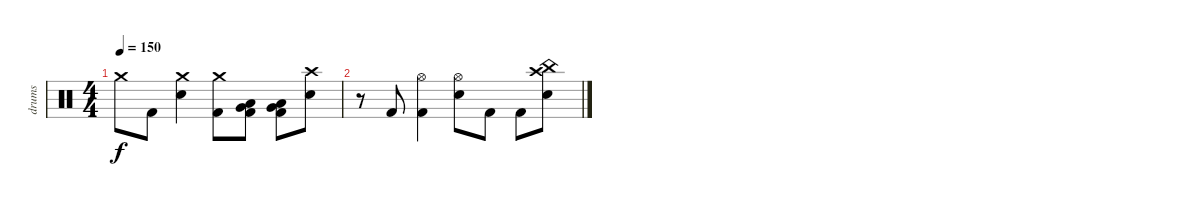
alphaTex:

\track ("drums" "drums") {instrument percussion}
\staff {score}
\articulation defaults
\ts (4 4)
\tempo 150
\clef neutral
\ks c "Crash medium (hit)".8{dy f} "Kick (hit) 2".8
("Crash medium (hit)" "Electric Snare (hit)").4 ("Crash medium (hit)" "Kick (hit) 2").8 ("Low Tom (hit)" "Very Low Tom (hit)" "Kick (hit) 2").8 ("Low Tom (hit)" "Very Low Tom (hit)" "Kick (hit) 2").8 ("Crash high (hit)" "Electric Snare (hit)").8 |
r.8 "Kick (hit) 2".8 ("Hi-Hat (open)" "Kick (hit) 2").4 ("Hi-Hat (open)" "Electric Snare (hit)").8 "Kick (hit) 2".8 "Kick (hit) 2".8 ("China (hit)" "Crash high (hit)" "Electric Snare (hit)").8
